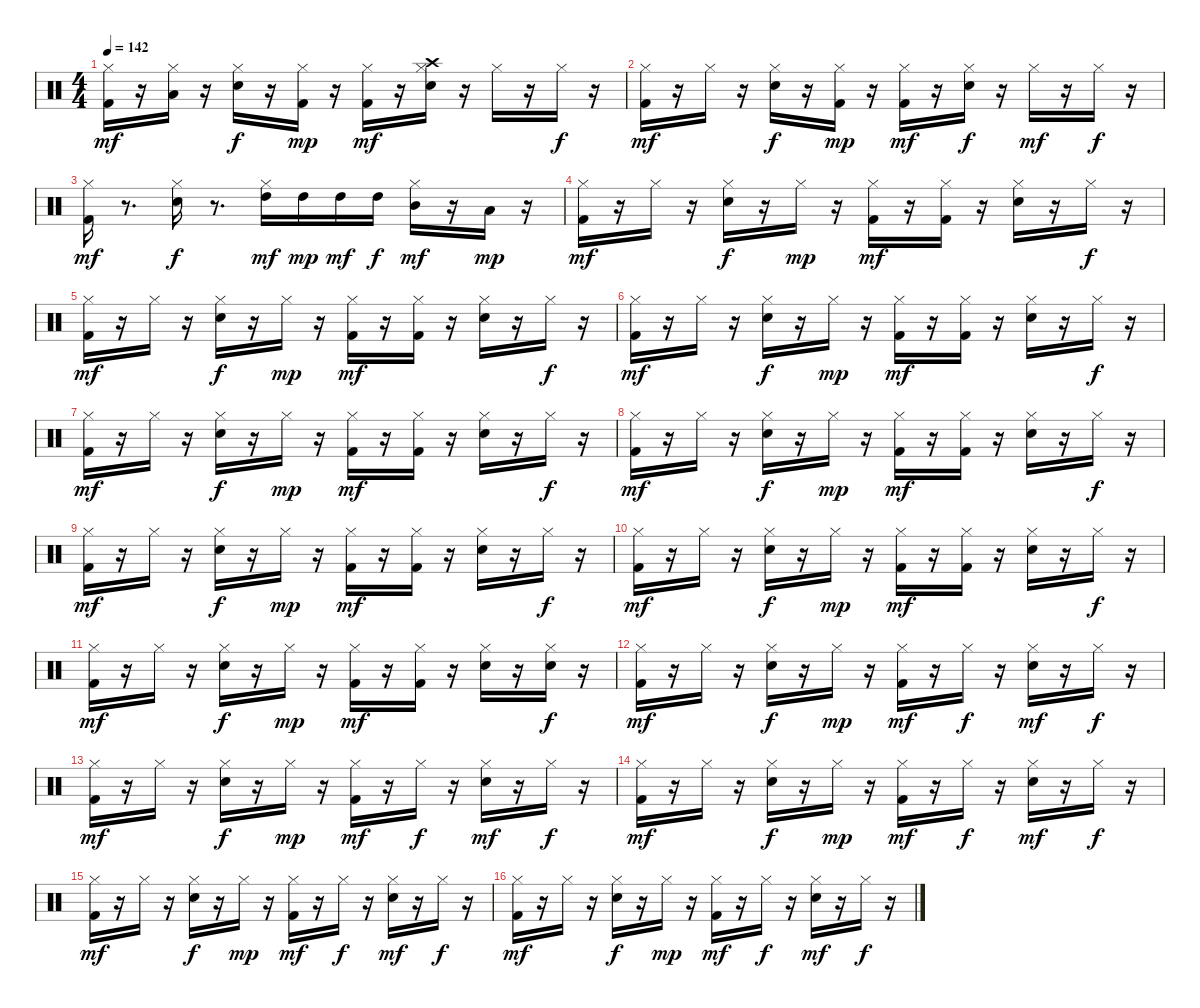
\track "" {instrument percussion}
\staff {score}
\articulation defaults
\ts (4 4)
\tempo 142
\clef neutral
\ks c
("Hi-Hat (closed)" "Kick (hit) 2").16{dy mf} r.16 ("Low Tom (hit)" "Hi-Hat (closed)").16 r.16 ("Hi-Hat (closed)" "Electric Snare (hit)").16{dy f} r.16 ("Kick (hit) 2" "Hi-Hat (closed)").16{dy mp} r.16 ("Hi-Hat (closed)" "Kick (hit) 2").16{dy mf} r.16 ("Electric Snare (hit)" "Hi-Hat (closed)" "Crash high (hit)").16 r.16 "Hi-Hat (closed)".16 r.16 "Hi-Hat (closed)".16{dy f} r.16 |
("Kick (hit) 2" "Hi-Hat (closed)").16{dy mf} r.16 "Hi-Hat (closed)".16 r.16 ("Electric Snare (hit)" "Hi-Hat (closed)").16{dy f} r.16 ("Hi-Hat (closed)" "Kick (hit) 2").16{dy mp} r.16 ("Kick (hit) 2" "Hi-Hat (closed)").16{dy mf} r.16 ("Electric Snare (hit)" "Hi-Hat (closed)").16{dy f} r.16 "Hi-Hat (closed)".16{dy mf} r.16 "Hi-Hat (closed)".16{dy f} r.16 |
("Hi-Hat (closed)" "Kick (hit) 2").16{dy mf} r.8{d} ("Hi-Hat (closed)" "Electric Snare (hit)").16{dy f} r.8{d} ("High Tom (hit)" "Hi-Hat (closed)").16{dy mf} "High Tom (hit)".16{dy mp} "High Tom (hit)".16{dy mf} "High Tom (hit)".16{dy f} ("Hi-Hat (closed)" "Mid Tom (hit)").16{dy mf} r.16 "Low Tom (hit)".16{dy mp} r.16 |
("Hi-Hat (closed)" "Kick (hit) 2").16{dy mf} r.16 "Hi-Hat (closed)".16 r.16 ("Hi-Hat (closed)" "Electric Snare (hit)").16{dy f} r.16 "Hi-Hat (closed)".16{dy mp} r.16 ("Kick (hit) 2" "Hi-Hat (closed)").16{dy mf} r.16 ("Hi-Hat (closed)" "Kick (hit) 2").16 r.16 ("Hi-Hat (closed)" "Electric Snare (hit)").16 r.16 "Hi-Hat (closed)".16{dy f} r.16 |
("Hi-Hat (closed)" "Kick (hit) 2").16{dy mf} r.16 "Hi-Hat (closed)".16 r.16 ("Hi-Hat (closed)" "Electric Snare (hit)").16{dy f} r.16 "Hi-Hat (closed)".16{dy mp} r.16 ("Hi-Hat (closed)" "Kick (hit) 2").16{dy mf} r.16 ("Hi-Hat (closed)" "Kick (hit) 2").16 r.16 ("Electric Snare (hit)" "Hi-Hat (closed)").16 r.16 "Hi-Hat (closed)".16{dy f} r.16 |
("Hi-Hat (closed)" "Kick (hit) 2").16{dy mf} r.16 "Hi-Hat (closed)".16 r.16 ("Electric Snare (hit)" "Hi-Hat (closed)").16{dy f} r.16 "Hi-Hat (closed)".16{dy mp} r.16 ("Hi-Hat (closed)" "Kick (hit) 2").16{dy mf} r.16 ("Hi-Hat (closed)" "Kick (hit) 2").16 r.16 ("Electric Snare (hit)" "Hi-Hat (closed)").16 r.16 "Hi-Hat (closed)".16{dy f} r.16 |
("Hi-Hat (closed)" "Kick (hit) 2").16{dy mf} r.16 "Hi-Hat (closed)".16 r.16 ("Hi-Hat (closed)" "Electric Snare (hit)").16{dy f} r.16 "Hi-Hat (closed)".16{dy mp} r.16 ("Hi-Hat (closed)" "Kick (hit) 2").16{dy mf} r.16 ("Hi-Hat (closed)" "Kick (hit) 2").16 r.16 ("Electric Snare (hit)" "Hi-Hat (closed)").16 r.16 "Hi-Hat (closed)".16{dy f} r.16 |
("Hi-Hat (closed)" "Kick (hit) 2").16{dy mf} r.16 "Hi-Hat (closed)".16 r.16 ("Hi-Hat (closed)" "Electric Snare (hit)").16{dy f} r.16 "Hi-Hat (closed)".16{dy mp} r.16 ("Kick (hit) 2" "Hi-Hat (closed)").16{dy mf} r.16 ("Kick (hit) 2" "Hi-Hat (closed)").16 r.16 ("Hi-Hat (closed)" "Electric Snare (hit)").16 r.16 "Hi-Hat (closed)".16{dy f} r.16 |
("Hi-Hat (closed)" "Kick (hit) 2").16{dy mf} r.16 "Hi-Hat (closed)".16 r.16 ("Electric Snare (hit)" "Hi-Hat (closed)").16{dy f} r.16 "Hi-Hat (closed)".16{dy mp} r.16 ("Hi-Hat (closed)" "Kick (hit) 2").16{dy mf} r.16 ("Hi-Hat (closed)" "Kick (hit) 2").16 r.16 ("Electric Snare (hit)" "Hi-Hat (closed)").16 r.16 "Hi-Hat (closed)".16{dy f} r.16 |
("Hi-Hat (closed)" "Kick (hit) 2").16{dy mf} r.16 "Hi-Hat (closed)".16 r.16 ("Electric Snare (hit)" "Hi-Hat (closed)").16{dy f} r.16 "Hi-Hat (closed)".16{dy mp} r.16 ("Hi-Hat (closed)" "Kick (hit) 2").16{dy mf} r.16 ("Hi-Hat (closed)" "Kick (hit) 2").16 r.16 ("Hi-Hat (closed)" "Electric Snare (hit)").16 r.16 "Hi-Hat (closed)".16{dy f} r.16 |
("Kick (hit) 2" "Hi-Hat (closed)").16{dy mf} r.16 "Hi-Hat (closed)".16 r.16 ("Hi-Hat (closed)" "Electric Snare (hit)").16{dy f} r.16 "Hi-Hat (closed)".16{dy mp} r.16 ("Hi-Hat (closed)" "Kick (hit) 2").16{dy mf} r.16 ("Hi-Hat (closed)" "Kick (hit) 2").16 r.16 ("Electric Snare (hit)" "Hi-Hat (closed)").16 r.16 ("Hi-Hat (closed)" "Electric Snare (hit)").16{dy f} r.16 |
("Hi-Hat (closed)" "Kick (hit) 2").16{dy mf} r.16 "Hi-Hat (closed)".16 r.16 ("Electric Snare (hit)" "Hi-Hat (closed)").16{dy f} r.16 "Hi-Hat (closed)".16{dy mp} r.16 ("Kick (hit) 2" "Hi-Hat (closed)").16{dy mf} r.16 "Hi-Hat (closed)".16{dy f} r.16 ("Hi-Hat (closed)" "Electric Snare (hit)").16{dy mf} r.16 "Hi-Hat (closed)".16{dy f} r.16 |
("Kick (hit) 2" "Hi-Hat (closed)").16{dy mf} r.16 "Hi-Hat (closed)".16 r.16 ("Hi-Hat (closed)" "Electric Snare (hit)").16{dy f} r.16 "Hi-Hat (closed)".16{dy mp} r.16 ("Kick (hit) 2" "Hi-Hat (closed)").16{dy mf} r.16 "Hi-Hat (closed)".16{dy f} r.16 ("Hi-Hat (closed)" "Electric Snare (hit)").16{dy mf} r.16 "Hi-Hat (closed)".16{dy f} r.16 |
("Kick (hit) 2" "Hi-Hat (closed)").16{dy mf} r.16 "Hi-Hat (closed)".16 r.16 ("Hi-Hat (closed)" "Electric Snare (hit)").16{dy f} r.16 "Hi-Hat (closed)".16{dy mp} r.16 ("Hi-Hat (closed)" "Kick (hit) 2").16{dy mf} r.16 "Hi-Hat (closed)".16{dy f} r.16 ("Electric Snare (hit)" "Hi-Hat (closed)").16{dy mf} r.16 "Hi-Hat (closed)".16{dy f} r.16 |
("Hi-Hat (closed)" "Kick (hit) 2").16{dy mf} r.16 "Hi-Hat (closed)".16 r.16 ("Hi-Hat (closed)" "Electric Snare (hit)").16{dy f} r.16 "Hi-Hat (closed)".16{dy mp} r.16 ("Hi-Hat (closed)" "Kick (hit) 2").16{dy mf} r.16 "Hi-Hat (closed)".16{dy f} r.16 ("Electric Snare (hit)" "Hi-Hat (closed)").16{dy mf} r.16 "Hi-Hat (closed)".16{dy f} r.16 |
("Hi-Hat (closed)" "Kick (hit) 2").16{dy mf} r.16 "Hi-Hat (closed)".16 r.16 ("Hi-Hat (closed)" "Electric Snare (hit)").16{dy f} r.16 "Hi-Hat (closed)".16{dy mp} r.16 ("Hi-Hat (closed)" "Kick (hit) 2").16{dy mf} r.16 "Hi-Hat (closed)".16{dy f} r.16 ("Electric Snare (hit)" "Hi-Hat (closed)").16{dy mf} r.16 "Hi-Hat (closed)".16{dy f} r.16
